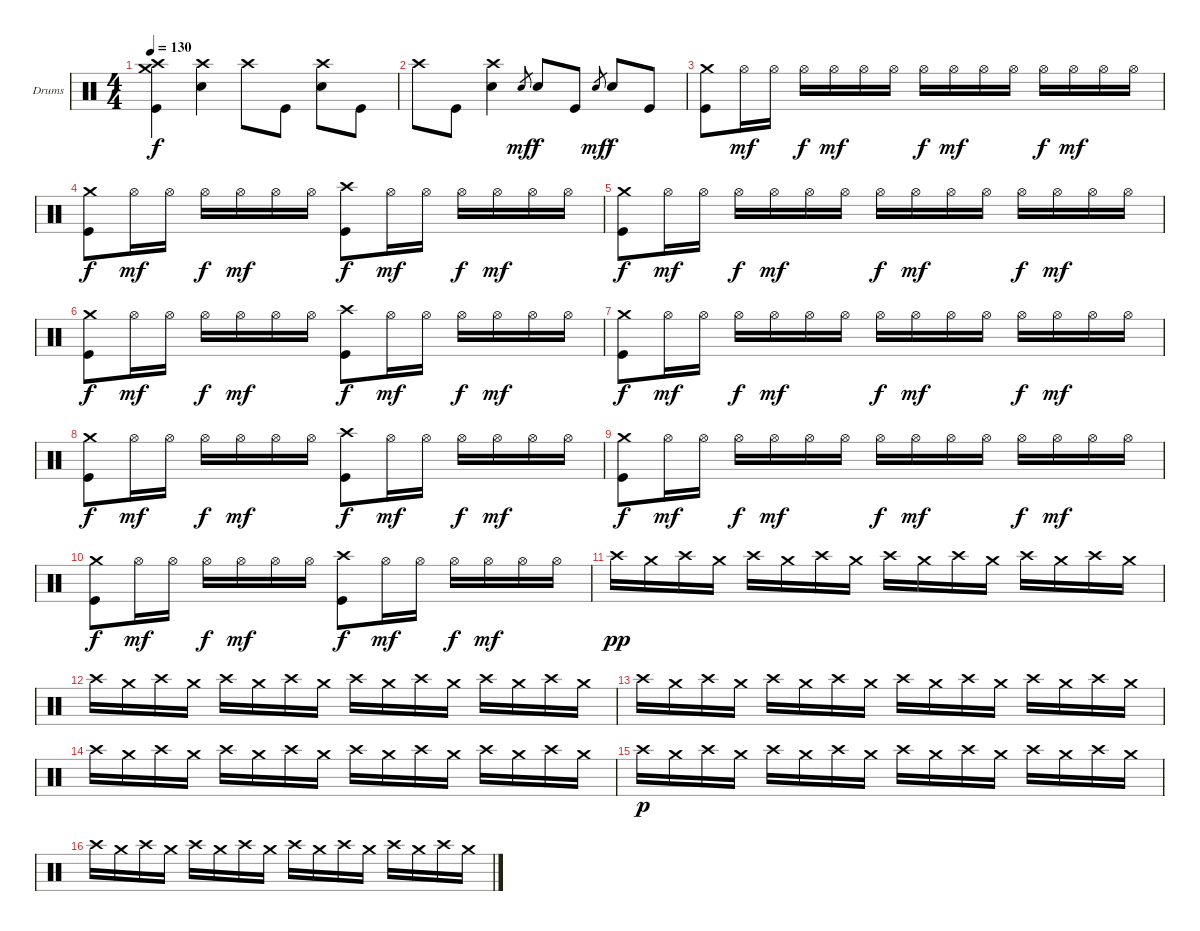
\bracketExtendMode groupsimilarinstruments
\firstSystemTrackNameOrientation horizontal
\otherSystemsTrackNameOrientation horizontal
\track ("Drumkit" "Drums") {instrument percussion}
\staff {score}
\articulation defaults
\ts (4 4)
\tempo 130
\clef neutral
\ks c
("Crash high (hit)" "Crash medium (hit)" "Kick (hit)").4{dy f} ("Crash high (hit)" "Snare (hit) 2").4 "Crash high (hit)".8 "Kick (hit)".8 ("Crash high (hit)" "Snare (hit) 2").8 "Kick (hit)".8 |
"Crash high (hit)".8 "Kick (hit)".8 ("Crash high (hit)" "Snare (hit) 2").4 "Snare (hit) 2".8{gr dy mf} "Snare (hit) 2".8{dy f} "Kick (hit)".8 "Snare (hit) 2".8{gr dy mf} "Snare (hit) 2".8{dy f} "Kick (hit)".8 |
("Crash medium (hit)" "Kick (hit)").8 "Hi-Hat (open)".16{dy mf} "Hi-Hat (open)".16 "Hi-Hat (open)".16{dy f} "Hi-Hat (open)".16{dy mf} "Hi-Hat (open)".16 "Hi-Hat (open)".16 "Hi-Hat (open)".16{dy f} "Hi-Hat (open)".16{dy mf} "Hi-Hat (open)".16 "Hi-Hat (open)".16 "Hi-Hat (open)".16{dy f} "Hi-Hat (open)".16{dy mf} "Hi-Hat (open)".16 "Hi-Hat (open)".16 |
("Crash medium (hit)" "Kick (hit)").8{dy f} "Hi-Hat (open)".16{dy mf} "Hi-Hat (open)".16 "Hi-Hat (open)".16{dy f} "Hi-Hat (open)".16{dy mf} "Hi-Hat (open)".16 "Hi-Hat (open)".16 ("Crash high (hit)" "Kick (hit)").8{dy f} "Hi-Hat (open)".16{dy mf} "Hi-Hat (open)".16 "Hi-Hat (open)".16{dy f} "Hi-Hat (open)".16{dy mf} "Hi-Hat (open)".16 "Hi-Hat (open)".16 |
("Crash medium (hit)" "Kick (hit)").8{dy f} "Hi-Hat (open)".16{dy mf} "Hi-Hat (open)".16 "Hi-Hat (open)".16{dy f} "Hi-Hat (open)".16{dy mf} "Hi-Hat (open)".16 "Hi-Hat (open)".16 "Hi-Hat (open)".16{dy f} "Hi-Hat (open)".16{dy mf} "Hi-Hat (open)".16 "Hi-Hat (open)".16 "Hi-Hat (open)".16{dy f} "Hi-Hat (open)".16{dy mf} "Hi-Hat (open)".16 "Hi-Hat (open)".16 |
("Crash medium (hit)" "Kick (hit)").8{dy f} "Hi-Hat (open)".16{dy mf} "Hi-Hat (open)".16 "Hi-Hat (open)".16{dy f} "Hi-Hat (open)".16{dy mf} "Hi-Hat (open)".16 "Hi-Hat (open)".16 ("Crash high (hit)" "Kick (hit)").8{dy f} "Hi-Hat (open)".16{dy mf} "Hi-Hat (open)".16 "Hi-Hat (open)".16{dy f} "Hi-Hat (open)".16{dy mf} "Hi-Hat (open)".16 "Hi-Hat (open)".16 |
("Crash medium (hit)" "Kick (hit)").8{dy f} "Hi-Hat (open)".16{dy mf} "Hi-Hat (open)".16 "Hi-Hat (open)".16{dy f} "Hi-Hat (open)".16{dy mf} "Hi-Hat (open)".16 "Hi-Hat (open)".16 "Hi-Hat (open)".16{dy f} "Hi-Hat (open)".16{dy mf} "Hi-Hat (open)".16 "Hi-Hat (open)".16 "Hi-Hat (open)".16{dy f} "Hi-Hat (open)".16{dy mf} "Hi-Hat (open)".16 "Hi-Hat (open)".16 |
("Crash medium (hit)" "Kick (hit)").8{dy f} "Hi-Hat (open)".16{dy mf} "Hi-Hat (open)".16 "Hi-Hat (open)".16{dy f} "Hi-Hat (open)".16{dy mf} "Hi-Hat (open)".16 "Hi-Hat (open)".16 ("Crash high (hit)" "Kick (hit)").8{dy f} "Hi-Hat (open)".16{dy mf} "Hi-Hat (open)".16 "Hi-Hat (open)".16{dy f} "Hi-Hat (open)".16{dy mf} "Hi-Hat (open)".16 "Hi-Hat (open)".16 |
("Crash medium (hit)" "Kick (hit)").8{dy f} "Hi-Hat (open)".16{dy mf} "Hi-Hat (open)".16 "Hi-Hat (open)".16{dy f} "Hi-Hat (open)".16{dy mf} "Hi-Hat (open)".16 "Hi-Hat (open)".16 "Hi-Hat (open)".16{dy f} "Hi-Hat (open)".16{dy mf} "Hi-Hat (open)".16 "Hi-Hat (open)".16 "Hi-Hat (open)".16{dy f} "Hi-Hat (open)".16{dy mf} "Hi-Hat (open)".16 "Hi-Hat (open)".16 |
("Crash medium (hit)" "Kick (hit)").8{dy f} "Hi-Hat (open)".16{dy mf} "Hi-Hat (open)".16 "Hi-Hat (open)".16{dy f} "Hi-Hat (open)".16{dy mf} "Hi-Hat (open)".16 "Hi-Hat (open)".16 ("Crash high (hit)" "Kick (hit)").8{dy f} "Hi-Hat (open)".16{dy mf} "Hi-Hat (open)".16 "Hi-Hat (open)".16{dy f} "Hi-Hat (open)".16{dy mf} "Hi-Hat (open)".16 "Hi-Hat (open)".16 |
"Crash high (hit)".16{dy pp} "Crash medium (hit)".16 "Crash high (hit)".16 "Crash medium (hit)".16 "Crash high (hit)".16 "Crash medium (hit)".16 "Crash high (hit)".16 "Crash medium (hit)".16 "Crash high (hit)".16 "Crash medium (hit)".16 "Crash high (hit)".16 "Crash medium (hit)".16 "Crash high (hit)".16 "Crash medium (hit)".16 "Crash high (hit)".16 "Crash medium (hit)".16 |
"Crash high (hit)".16 "Crash medium (hit)".16 "Crash high (hit)".16 "Crash medium (hit)".16 "Crash high (hit)".16 "Crash medium (hit)".16 "Crash high (hit)".16 "Crash medium (hit)".16 "Crash high (hit)".16 "Crash medium (hit)".16 "Crash high (hit)".16 "Crash medium (hit)".16 "Crash high (hit)".16 "Crash medium (hit)".16 "Crash high (hit)".16 "Crash medium (hit)".16 |
"Crash high (hit)".16 "Crash medium (hit)".16 "Crash high (hit)".16 "Crash medium (hit)".16 "Crash high (hit)".16 "Crash medium (hit)".16 "Crash high (hit)".16 "Crash medium (hit)".16 "Crash high (hit)".16 "Crash medium (hit)".16 "Crash high (hit)".16 "Crash medium (hit)".16 "Crash high (hit)".16 "Crash medium (hit)".16 "Crash high (hit)".16 "Crash medium (hit)".16 |
"Crash high (hit)".16 "Crash medium (hit)".16 "Crash high (hit)".16 "Crash medium (hit)".16 "Crash high (hit)".16 "Crash medium (hit)".16 "Crash high (hit)".16 "Crash medium (hit)".16 "Crash high (hit)".16 "Crash medium (hit)".16 "Crash high (hit)".16 "Crash medium (hit)".16 "Crash high (hit)".16 "Crash medium (hit)".16 "Crash high (hit)".16 "Crash medium (hit)".16 |
"Crash high (hit)".16{dy p} "Crash medium (hit)".16 "Crash high (hit)".16 "Crash medium (hit)".16 "Crash high (hit)".16 "Crash medium (hit)".16 "Crash high (hit)".16 "Crash medium (hit)".16 "Crash high (hit)".16 "Crash medium (hit)".16 "Crash high (hit)".16 "Crash medium (hit)".16 "Crash high (hit)".16 "Crash medium (hit)".16 "Crash high (hit)".16 "Crash medium (hit)".16 |
"Crash high (hit)".16 "Crash medium (hit)".16 "Crash high (hit)".16 "Crash medium (hit)".16 "Crash high (hit)".16 "Crash medium (hit)".16 "Crash high (hit)".16 "Crash medium (hit)".16 "Crash high (hit)".16 "Crash medium (hit)".16 "Crash high (hit)".16 "Crash medium (hit)".16 "Crash high (hit)".16 "Crash medium (hit)".16 "Crash high (hit)".16 "Crash medium (hit)".16
